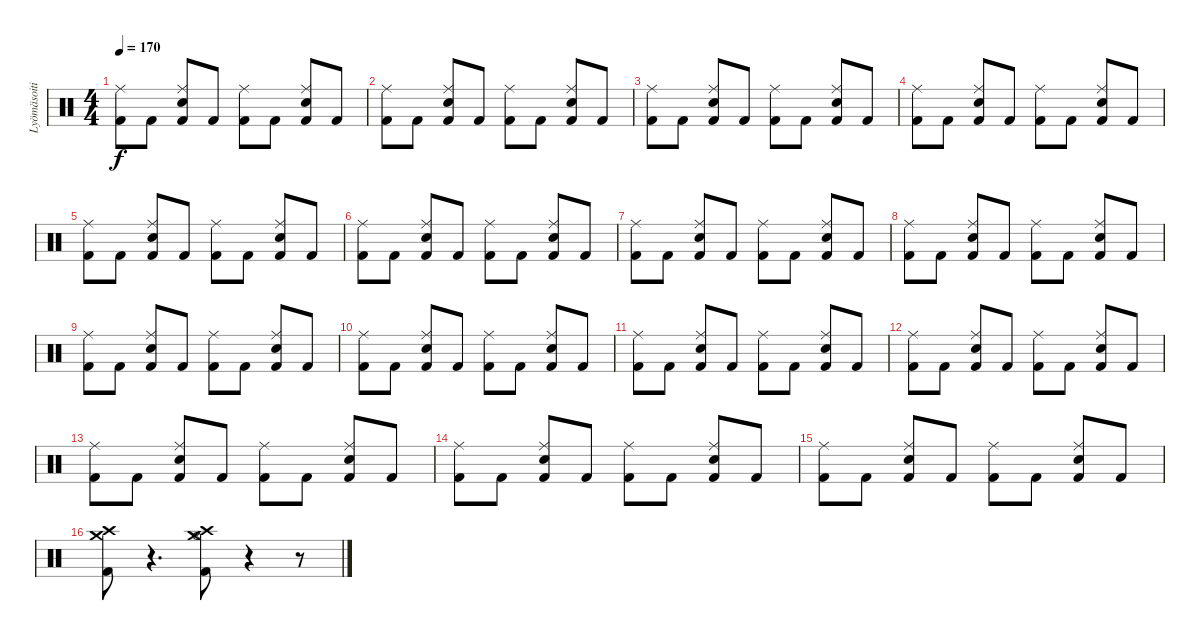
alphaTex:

\track ("Lyömäsoitin" "Lyömäsoiti") {instrument percussion}
\staff {score}
\articulation defaults
\ts (4 4)
\tempo 170
\clef neutral
\ks c
("Kick (hit) 2" "Ride (middle)").8{dy f} "Kick (hit) 2".8 ("Kick (hit) 2" "Ride (middle)" "Snare (hit) 2").8 "Kick (hit) 2".8 ("Kick (hit) 2" "Ride (middle)").8 "Kick (hit) 2".8 ("Kick (hit) 2" "Ride (middle)" "Snare (hit) 2").8 "Kick (hit) 2".8 |
("Kick (hit) 2" "Ride (middle)").8 "Kick (hit) 2".8 ("Kick (hit) 2" "Ride (middle)" "Snare (hit) 2").8 "Kick (hit) 2".8 ("Kick (hit) 2" "Ride (middle)").8 "Kick (hit) 2".8 ("Kick (hit) 2" "Ride (middle)" "Snare (hit) 2").8 "Kick (hit) 2".8 |
("Kick (hit) 2" "Ride (middle)").8 "Kick (hit) 2".8 ("Kick (hit) 2" "Ride (middle)" "Snare (hit) 2").8 "Kick (hit) 2".8 ("Kick (hit) 2" "Ride (middle)").8 "Kick (hit) 2".8 ("Kick (hit) 2" "Ride (middle)" "Snare (hit) 2").8 "Kick (hit) 2".8 |
("Kick (hit) 2" "Ride (middle)").8 "Kick (hit) 2".8 ("Kick (hit) 2" "Ride (middle)" "Snare (hit) 2").8 "Kick (hit) 2".8 ("Kick (hit) 2" "Ride (middle)").8 "Kick (hit) 2".8 ("Kick (hit) 2" "Ride (middle)" "Snare (hit) 2").8 "Kick (hit) 2".8 |
("Kick (hit) 2" "Ride (middle)").8 "Kick (hit) 2".8 ("Kick (hit) 2" "Ride (middle)" "Snare (hit) 2").8 "Kick (hit) 2".8 ("Kick (hit) 2" "Ride (middle)").8 "Kick (hit) 2".8 ("Kick (hit) 2" "Ride (middle)" "Snare (hit) 2").8 "Kick (hit) 2".8 |
("Kick (hit) 2" "Ride (middle)").8 "Kick (hit) 2".8 ("Kick (hit) 2" "Ride (middle)" "Snare (hit) 2").8 "Kick (hit) 2".8 ("Kick (hit) 2" "Ride (middle)").8 "Kick (hit) 2".8 ("Kick (hit) 2" "Ride (middle)" "Snare (hit) 2").8 "Kick (hit) 2".8 |
("Kick (hit) 2" "Ride (middle)").8 "Kick (hit) 2".8 ("Kick (hit) 2" "Ride (middle)" "Snare (hit) 2").8 "Kick (hit) 2".8 ("Kick (hit) 2" "Ride (middle)").8 "Kick (hit) 2".8 ("Kick (hit) 2" "Ride (middle)" "Snare (hit) 2").8 "Kick (hit) 2".8 |
("Kick (hit) 2" "Ride (middle)").8 "Kick (hit) 2".8 ("Kick (hit) 2" "Ride (middle)" "Snare (hit) 2").8 "Kick (hit) 2".8 ("Kick (hit) 2" "Ride (middle)").8 "Kick (hit) 2".8 ("Kick (hit) 2" "Ride (middle)" "Snare (hit) 2").8 "Kick (hit) 2".8 |
("Kick (hit) 2" "Ride (middle)").8 "Kick (hit) 2".8 ("Kick (hit) 2" "Ride (middle)" "Snare (hit) 2").8 "Kick (hit) 2".8 ("Kick (hit) 2" "Ride (middle)").8 "Kick (hit) 2".8 ("Kick (hit) 2" "Ride (middle)" "Snare (hit) 2").8 "Kick (hit) 2".8 |
("Kick (hit) 2" "Ride (middle)").8 "Kick (hit) 2".8 ("Kick (hit) 2" "Ride (middle)" "Snare (hit) 2").8 "Kick (hit) 2".8 ("Kick (hit) 2" "Ride (middle)").8 "Kick (hit) 2".8 ("Kick (hit) 2" "Ride (middle)" "Snare (hit) 2").8 "Kick (hit) 2".8 |
("Kick (hit) 2" "Ride (middle)").8 "Kick (hit) 2".8 ("Kick (hit) 2" "Ride (middle)" "Snare (hit) 2").8 "Kick (hit) 2".8 ("Kick (hit) 2" "Ride (middle)").8 "Kick (hit) 2".8 ("Kick (hit) 2" "Ride (middle)" "Snare (hit) 2").8 "Kick (hit) 2".8 |
("Kick (hit) 2" "Ride (middle)").8 "Kick (hit) 2".8 ("Kick (hit) 2" "Ride (middle)" "Snare (hit) 2").8 "Kick (hit) 2".8 ("Kick (hit) 2" "Ride (middle)").8 "Kick (hit) 2".8 ("Kick (hit) 2" "Ride (middle)" "Snare (hit) 2").8 "Kick (hit) 2".8 |
("Kick (hit) 2" "Ride (middle)").8 "Kick (hit) 2".8 ("Kick (hit) 2" "Ride (middle)" "Snare (hit) 2").8 "Kick (hit) 2".8 ("Kick (hit) 2" "Ride (middle)").8 "Kick (hit) 2".8 ("Kick (hit) 2" "Ride (middle)" "Snare (hit) 2").8 "Kick (hit) 2".8 |
("Kick (hit) 2" "Ride (middle)").8 "Kick (hit) 2".8 ("Kick (hit) 2" "Ride (middle)" "Snare (hit) 2").8 "Kick (hit) 2".8 ("Kick (hit) 2" "Ride (middle)").8 "Kick (hit) 2".8 ("Kick (hit) 2" "Ride (middle)" "Snare (hit) 2").8 "Kick (hit) 2".8 |
("Kick (hit) 2" "Ride (middle)").8 "Kick (hit) 2".8 ("Kick (hit) 2" "Ride (middle)" "Snare (hit) 2").8 "Kick (hit) 2".8 ("Kick (hit) 2" "Ride (middle)").8 "Kick (hit) 2".8 ("Kick (hit) 2" "Ride (middle)" "Snare (hit) 2").8 "Kick (hit) 2".8 |
("Crash medium (hit)" "Crash high (hit)" "Kick (hit) 2").8 r.4{d} ("Crash medium (hit)" "Hi-Hat (open)" "Crash high (hit)" "Kick (hit) 2").8 r.4 r.8
